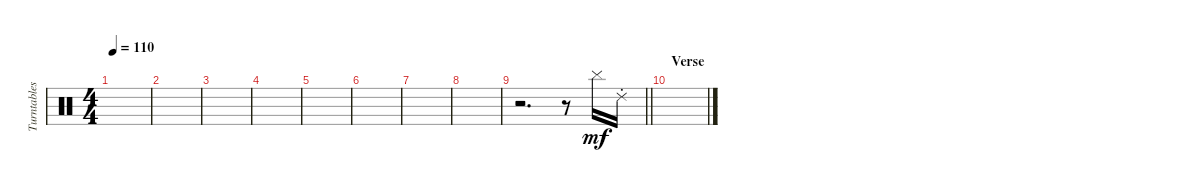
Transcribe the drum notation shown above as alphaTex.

\track ("Turntables - Joe Hahn" "Turntables") {instrument percussion}
\staff {score}
\articulation defaults
\ts (4 4)
\tempo 110
\clef neutral
\ks c
|
|
|
|
|
|
|
|
\barLineRight lightlight
r.2{d volume 13} r.8 "Cymbal (hit)".16{dy mf} "Ride (choke) 2".16 |
\section ("" "Verse")
